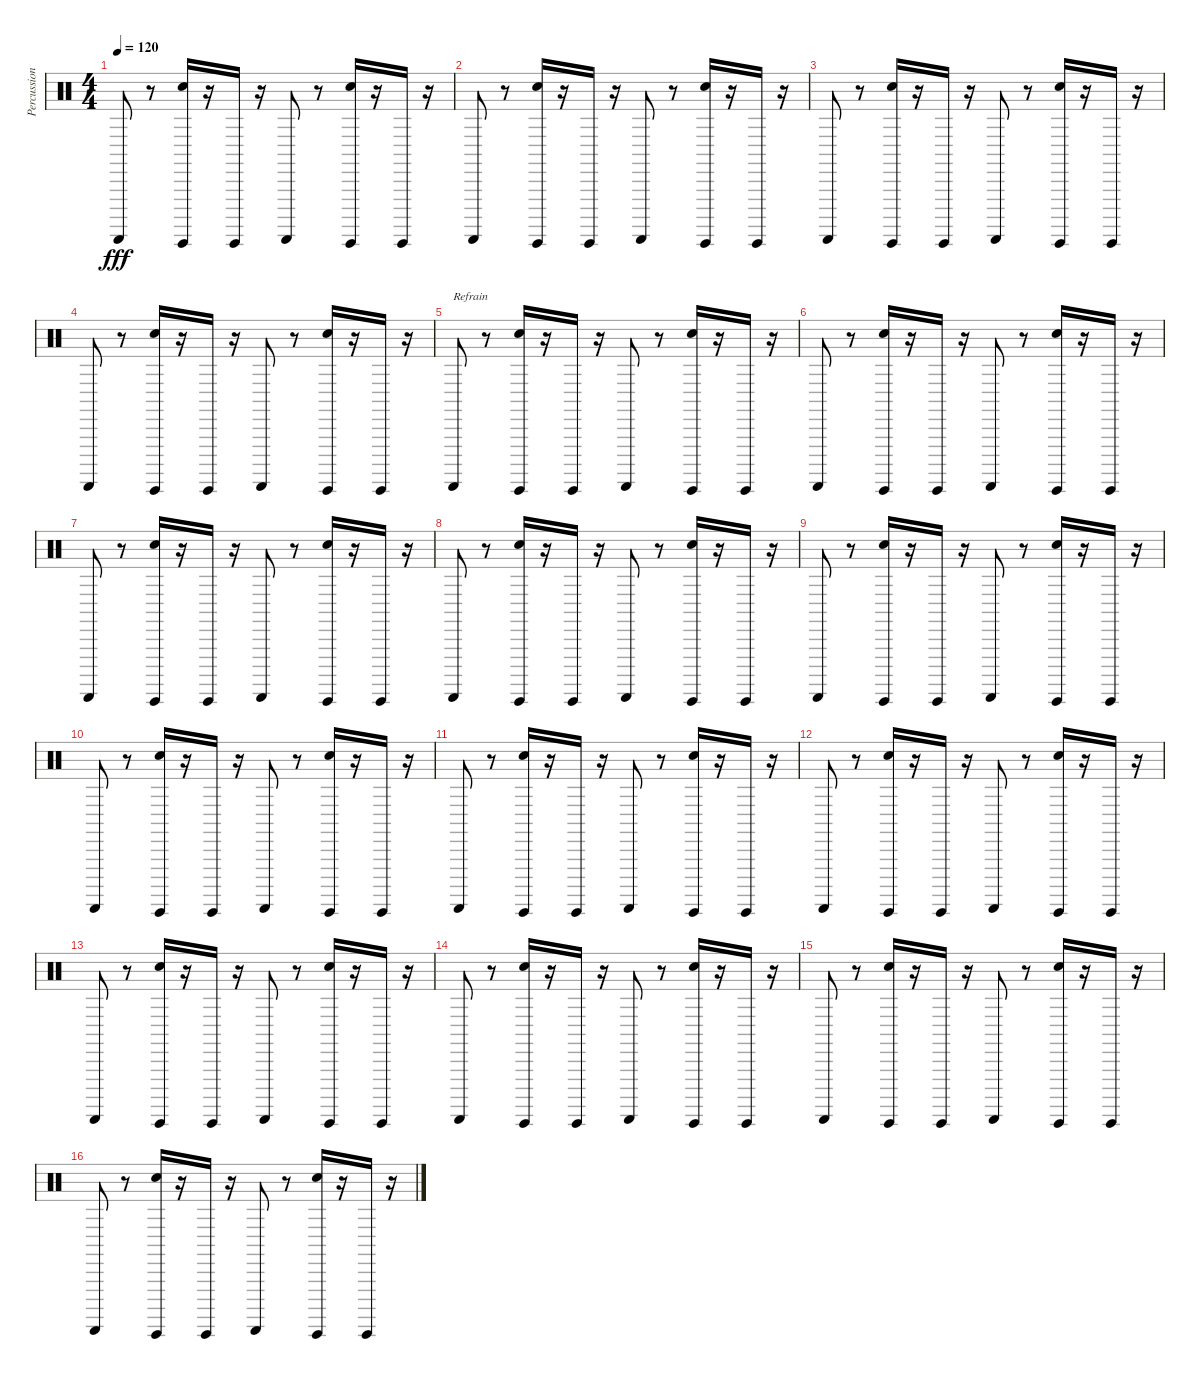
\track ("Percussions" "Percussion") {instrument percussion}
\staff {score}
\articulation defaults
\ts (4 4)
\tempo 120
\clef neutral
\ks c "Guiro (scrap-return)".8{dy fff}
r.8 ("Guiro (hit)" "Hand Clap (hit)").16 r.16 "Guiro (hit)".16 r.16 "Guiro (scrap-return)".8 r.8 ("Guiro (hit)" "Hand Clap (hit)").16 r.16 "Guiro (hit)".16 r.16 |
"Guiro (scrap-return)".8 r.8 ("Guiro (hit)" "Hand Clap (hit)").16 r.16 "Guiro (hit)".16 r.16 "Guiro (scrap-return)".8 r.8 ("Guiro (hit)" "Hand Clap (hit)").16 r.16 "Guiro (hit)".16 r.16 |
"Guiro (scrap-return)".8 r.8 ("Guiro (hit)" "Hand Clap (hit)").16 r.16 "Guiro (hit)".16 r.16 "Guiro (scrap-return)".8 r.8 ("Guiro (hit)" "Hand Clap (hit)").16 r.16 "Guiro (hit)".16 r.16 |
"Guiro (scrap-return)".8 r.8 ("Guiro (hit)" "Hand Clap (hit)").16 r.16 "Guiro (hit)".16 r.16 "Guiro (scrap-return)".8 r.8 ("Guiro (hit)" "Hand Clap (hit)").16 r.16 "Guiro (hit)".16 r.16 |
"Guiro (scrap-return)".8{txt "Refrain"} r.8 ("Guiro (hit)" "Hand Clap (hit)").16 r.16 "Guiro (hit)".16 r.16 "Guiro (scrap-return)".8 r.8 ("Guiro (hit)" "Hand Clap (hit)").16 r.16 "Guiro (hit)".16 r.16 |
"Guiro (scrap-return)".8 r.8 ("Guiro (hit)" "Hand Clap (hit)").16 r.16 "Guiro (hit)".16 r.16 "Guiro (scrap-return)".8 r.8 ("Guiro (hit)" "Hand Clap (hit)").16 r.16 "Guiro (hit)".16 r.16 |
"Guiro (scrap-return)".8 r.8 ("Guiro (hit)" "Hand Clap (hit)").16 r.16 "Guiro (hit)".16 r.16 "Guiro (scrap-return)".8 r.8 ("Guiro (hit)" "Hand Clap (hit)").16 r.16 "Guiro (hit)".16 r.16 |
"Guiro (scrap-return)".8 r.8 ("Guiro (hit)" "Hand Clap (hit)").16 r.16 "Guiro (hit)".16 r.16 "Guiro (scrap-return)".8 r.8 ("Guiro (hit)" "Hand Clap (hit)").16 r.16 "Guiro (hit)".16 r.16 |
"Guiro (scrap-return)".8 r.8 ("Guiro (hit)" "Hand Clap (hit)").16 r.16 "Guiro (hit)".16 r.16 "Guiro (scrap-return)".8 r.8 ("Guiro (hit)" "Hand Clap (hit)").16 r.16 "Guiro (hit)".16 r.16 |
"Guiro (scrap-return)".8 r.8 ("Guiro (hit)" "Hand Clap (hit)").16 r.16 "Guiro (hit)".16 r.16 "Guiro (scrap-return)".8 r.8 ("Guiro (hit)" "Hand Clap (hit)").16 r.16 "Guiro (hit)".16 r.16 |
"Guiro (scrap-return)".8 r.8 ("Guiro (hit)" "Hand Clap (hit)").16 r.16 "Guiro (hit)".16 r.16 "Guiro (scrap-return)".8 r.8 ("Guiro (hit)" "Hand Clap (hit)").16 r.16 "Guiro (hit)".16 r.16 |
"Guiro (scrap-return)".8 r.8 ("Guiro (hit)" "Hand Clap (hit)").16 r.16 "Guiro (hit)".16 r.16 "Guiro (scrap-return)".8 r.8 ("Guiro (hit)" "Hand Clap (hit)").16 r.16 "Guiro (hit)".16 r.16 |
"Guiro (scrap-return)".8 r.8 ("Guiro (hit)" "Hand Clap (hit)").16 r.16 "Guiro (hit)".16 r.16 "Guiro (scrap-return)".8 r.8 ("Guiro (hit)" "Hand Clap (hit)").16 r.16 "Guiro (hit)".16 r.16 |
"Guiro (scrap-return)".8 r.8 ("Guiro (hit)" "Hand Clap (hit)").16 r.16 "Guiro (hit)".16 r.16 "Guiro (scrap-return)".8 r.8 ("Guiro (hit)" "Hand Clap (hit)").16 r.16 "Guiro (hit)".16 r.16 |
"Guiro (scrap-return)".8 r.8 ("Guiro (hit)" "Hand Clap (hit)").16 r.16 "Guiro (hit)".16 r.16 "Guiro (scrap-return)".8 r.8 ("Guiro (hit)" "Hand Clap (hit)").16 r.16 "Guiro (hit)".16 r.16 |
"Guiro (scrap-return)".8 r.8 ("Guiro (hit)" "Hand Clap (hit)").16 r.16 "Guiro (hit)".16 r.16 "Guiro (scrap-return)".8 r.8 ("Guiro (hit)" "Hand Clap (hit)").16 r.16 "Guiro (hit)".16 r.16
